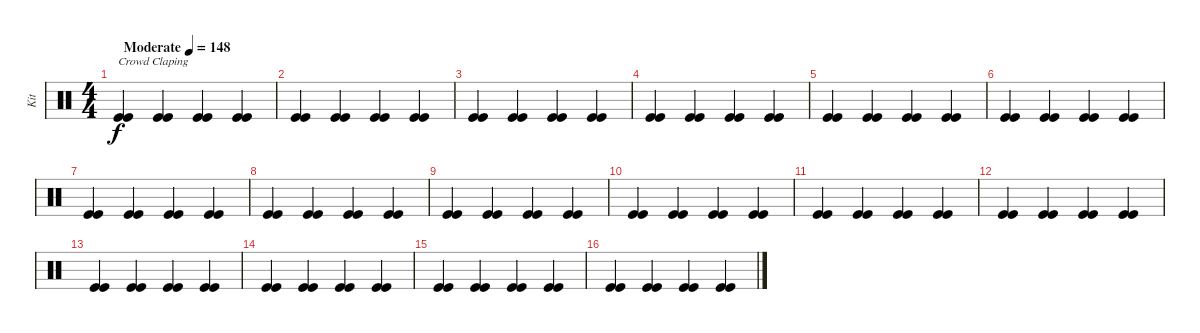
\track ("Kit" "Kit") {instrument percussion}
\staff {score}
\articulation defaults
\ts (4 4)
\tempo (148 "Moderate")
\clef neutral
\ks c
("Kick (hit)" "Kick (hit)").4{txt "Crowd Claping" dy f} ("Kick (hit)" "Kick (hit)").4 ("Kick (hit)" "Kick (hit)").4 ("Kick (hit)" "Kick (hit)").4 |
("Kick (hit)" "Kick (hit)").4 ("Kick (hit)" "Kick (hit)").4 ("Kick (hit)" "Kick (hit)").4 ("Kick (hit)" "Kick (hit)").4 |
("Kick (hit)" "Kick (hit)").4 ("Kick (hit)" "Kick (hit)").4 ("Kick (hit)" "Kick (hit)").4 ("Kick (hit)" "Kick (hit)").4 |
("Kick (hit)" "Kick (hit)").4 ("Kick (hit)" "Kick (hit)").4 ("Kick (hit)" "Kick (hit)").4 ("Kick (hit)" "Kick (hit)").4 |
("Kick (hit)" "Kick (hit)").4 ("Kick (hit)" "Kick (hit)").4 ("Kick (hit)" "Kick (hit)").4 ("Kick (hit)" "Kick (hit)").4 |
("Kick (hit)" "Kick (hit)").4 ("Kick (hit)" "Kick (hit)").4 ("Kick (hit)" "Kick (hit)").4 ("Kick (hit)" "Kick (hit)").4 |
("Kick (hit)" "Kick (hit)").4 ("Kick (hit)" "Kick (hit)").4 ("Kick (hit)" "Kick (hit)").4 ("Kick (hit)" "Kick (hit)").4 |
("Kick (hit)" "Kick (hit)").4 ("Kick (hit)" "Kick (hit)").4 ("Kick (hit)" "Kick (hit)").4 ("Kick (hit)" "Kick (hit)").4 |
("Kick (hit)" "Kick (hit)").4 ("Kick (hit)" "Kick (hit)").4 ("Kick (hit)" "Kick (hit)").4 ("Kick (hit)" "Kick (hit)").4 |
("Kick (hit)" "Kick (hit)").4 ("Kick (hit)" "Kick (hit)").4 ("Kick (hit)" "Kick (hit)").4 ("Kick (hit)" "Kick (hit)").4 |
("Kick (hit)" "Kick (hit)").4 ("Kick (hit)" "Kick (hit)").4 ("Kick (hit)" "Kick (hit)").4 ("Kick (hit)" "Kick (hit)").4 |
("Kick (hit)" "Kick (hit)").4 ("Kick (hit)" "Kick (hit)").4 ("Kick (hit)" "Kick (hit)").4 ("Kick (hit)" "Kick (hit)").4 |
("Kick (hit)" "Kick (hit)").4 ("Kick (hit)" "Kick (hit)").4 ("Kick (hit)" "Kick (hit)").4 ("Kick (hit)" "Kick (hit)").4 |
("Kick (hit)" "Kick (hit)").4 ("Kick (hit)" "Kick (hit)").4 ("Kick (hit)" "Kick (hit)").4 ("Kick (hit)" "Kick (hit)").4 |
("Kick (hit)" "Kick (hit)").4 ("Kick (hit)" "Kick (hit)").4 ("Kick (hit)" "Kick (hit)").4 ("Kick (hit)" "Kick (hit)").4 |
("Kick (hit)" "Kick (hit)").4 ("Kick (hit)" "Kick (hit)").4 ("Kick (hit)" "Kick (hit)").4 ("Kick (hit)" "Kick (hit)").4
